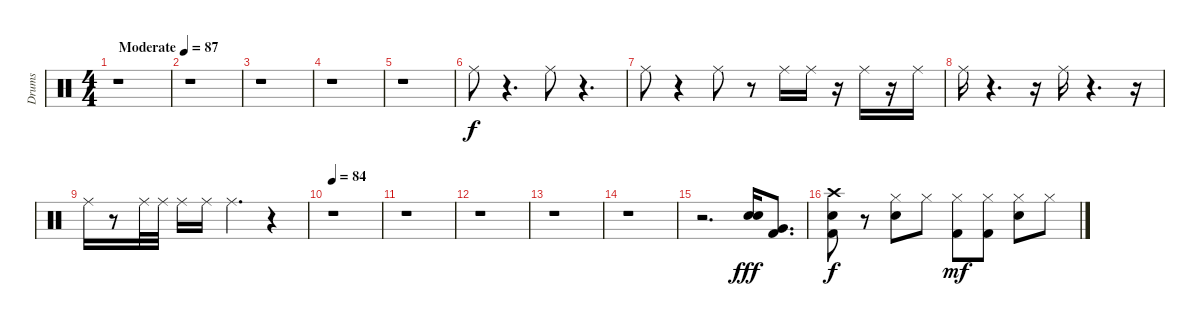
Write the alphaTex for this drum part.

\track ("Drums" "Drums") {instrument percussion}
\staff {score}
\articulation defaults
\ts (4 4)
\tempo (87 "Moderate")
\clef neutral
\ks c
r.1{dy f} |
r.1 |
r.1 |
r.1 |
r.1 |
"Ride (middle)".8 r.4{d} "Ride (middle)".8 r.4{d} |
"Ride (middle)".8 r.4 "Ride (middle)".8 r.8 "Ride (middle)".16 "Ride (middle)".16 r.16 "Ride (middle)".16 r.16 "Ride (middle)".16 |
"Ride (middle)".16 r.4{d} r.16 "Ride (middle)".16 r.4{d} r.16 |
"Ride (middle)".16 r.8 "Ride (middle)".32 "Ride (middle)".32 "Ride (middle)".16 "Ride (middle)".16 "Ride (middle)".4{d} r.4 |
\tempo 84
r.1 |
r.1 |
r.1 |
r.1 |
r.1 |
r.2{d} ("Snare (hit) 2" "Electric Snare (hit)").16{dy fff volume 12} ("Kick (hit) 2" "Very Low Tom (hit)").8{d} |
("Crash high (hit)" "Snare (hit) 2" "Kick (hit) 2").8{dy f volume 12} r.8 ("Hi-Hat (closed)" "Electric Snare (hit)").8 "Hi-Hat (closed)".8 ("Hi-Hat (closed)" "Kick (hit) 2").8{dy mf} ("Hi-Hat (closed)" "Kick (hit) 2").8 ("Hi-Hat (closed)" "Electric Snare (hit)").8 "Hi-Hat (closed)".8
